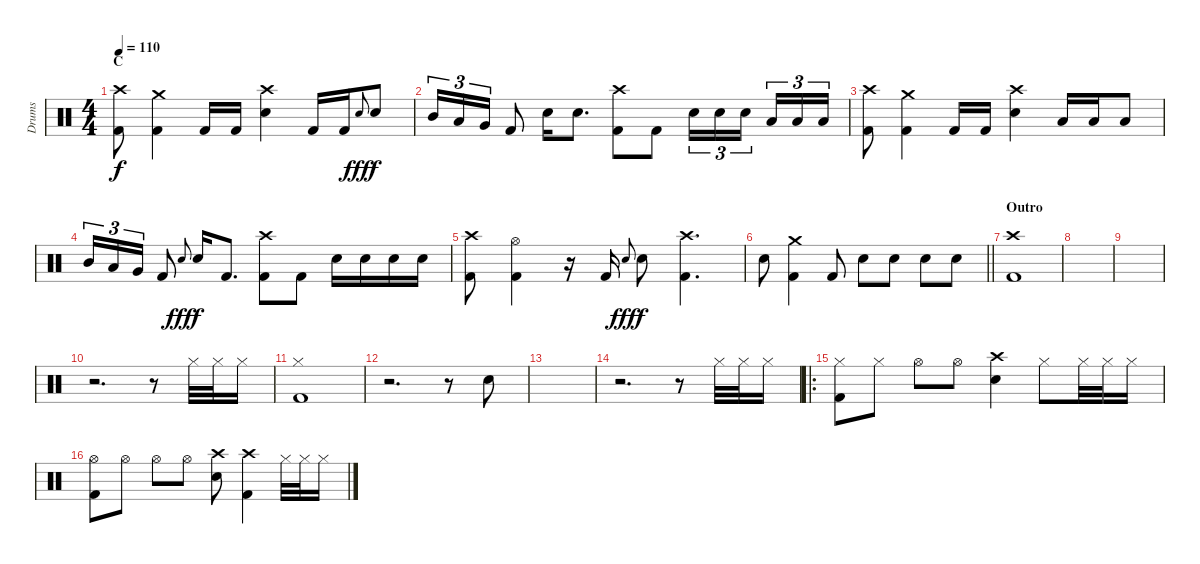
\track ("Drums" "Drums") {instrument percussion}
\staff {score}
\articulation defaults
\ts (4 4)
\section ("" "C")
\tempo 110
\clef neutral
\ks c
("Kick (hit) 2" "Crash high (hit)").8{dy f} ("Crash medium (hit)" "Kick (hit) 2").4 "Kick (hit) 2".16 "Kick (hit) 2".16 ("Snare (hit) 2" "Crash high (hit)").4 "Kick (hit) 2".16 "Kick (hit) 2".16 "Snare (hit) 2".8{gr onbeat dy fff} "Snare (hit) 2".8{dy f} |
"Mid Tom (hit)".16{tu (3 2)} "Low Tom (hit)".16{tu (3 2)} "Very Low Tom (hit)".16{tu (3 2)} "Kick (hit) 2".8 "Snare (hit) 2".16 "Snare (hit) 2".8{d} ("Kick (hit) 2" "Crash high (hit)").8 "Kick (hit) 2".8 "Snare (hit) 2".16{tu (3 2)} "Snare (hit) 2".16{tu (3 2)} "Snare (hit) 2".16{tu (3 2) beam splitsecondary} "Low Tom (hit)".16{tu (3 2)} "Low Tom (hit)".16{tu (3 2)} "Low Tom (hit)".16{tu (3 2)} |
("Kick (hit) 2" "Crash high (hit)").8 ("Crash medium (hit)" "Kick (hit) 2").4 "Kick (hit) 2".16 "Kick (hit) 2".16 ("Snare (hit) 2" "Crash high (hit)").4 "Low Tom (hit)".16 "Low Tom (hit)".16 "Low Tom (hit)".8 |
"Mid Tom (hit)".16{tu (3 2)} "Low Tom (hit)".16{tu (3 2)} "Very Low Tom (hit)".16{tu (3 2)} "Kick (hit) 2".8 "Snare (hit) 2".8{gr onbeat dy fff} "Snare (hit) 2".16{dy f} "Kick (hit) 2".8{d} ("Kick (hit) 2" "Crash high (hit)").8 "Kick (hit) 2".8 "Snare (hit) 2".16 "Snare (hit) 2".16 "Snare (hit) 2".16 "Snare (hit) 2".16 |
("Kick (hit) 2" "Crash high (hit)").8 ("Hi-Hat (open)" "Kick (hit) 2").4 r.16 "Kick (hit) 2".16 "Snare (hit) 2".8{gr onbeat dy fff} "Snare (hit) 2".8{dy f} ("Kick (hit) 2" "Crash high (hit)").4{d} |
\barLineRight lightlight "Snare (hit) 2".8
("Crash medium (hit)" "Kick (hit) 2").4 "Kick (hit) 2".8 "Snare (hit) 2".8 "Snare (hit) 2".8 "Snare (hit) 2".8 "Snare (hit) 2".8 |
\section ("" "Outro")
("Crash high (hit)" "Kick (hit) 2").1 |
|
|
r.2{d} r.8 "Hi-Hat (closed)".32 "Hi-Hat (closed)".32 "Hi-Hat (closed)".16 |
("Hi-Hat (closed)" "Kick (hit) 2").1 |
r.2{d} r.8 "Snare (hit) 2".8 |
|
r.2{d} r.8 "Hi-Hat (closed)".32 "Hi-Hat (closed)".32 "Hi-Hat (closed)".16 |
\ro
("Hi-Hat (closed)" "Kick (hit) 2").8 "Hi-Hat (closed)".8 "Hi-Hat (open)".8 "Hi-Hat (open)".8 ("Snare (hit) 2" "Crash high (hit)").4 "Hi-Hat (closed)".8 "Hi-Hat (closed)".32 "Hi-Hat (closed)".32 "Hi-Hat (closed)".16 |
("Hi-Hat (open)" "Kick (hit) 2").8 "Hi-Hat (open)".8 "Hi-Hat (open)".8 "Hi-Hat (open)".8 ("Snare (hit) 2" "Crash high (hit)").8 ("Kick (hit) 2" "Crash high (hit)").4 "Hi-Hat (closed)".32 "Hi-Hat (closed)".32 "Hi-Hat (closed)".16
